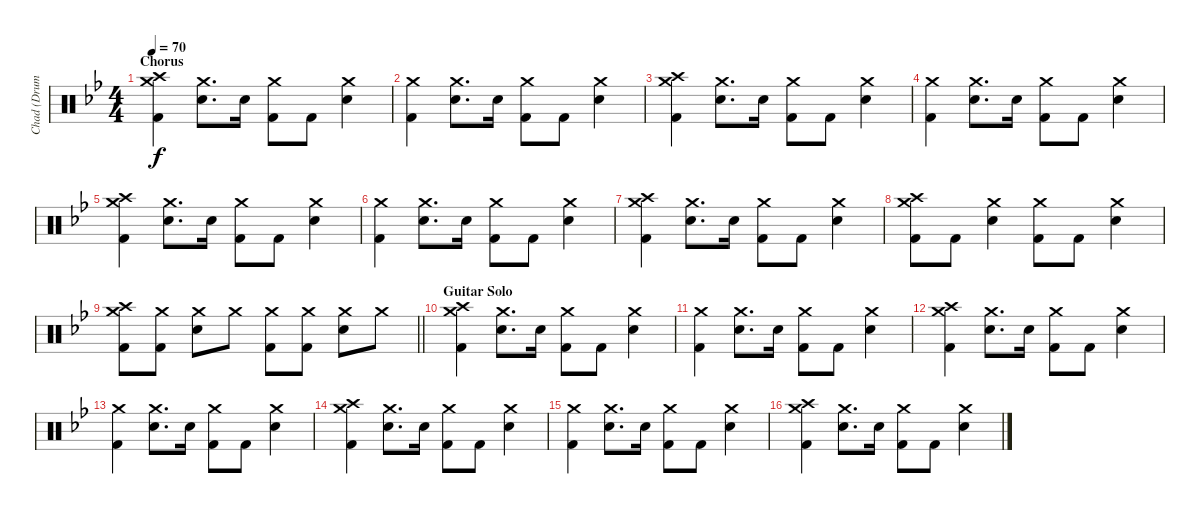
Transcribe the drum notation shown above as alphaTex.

\track ("Chad (Drums)" "Chad (Drum") {instrument percussion}
\staff {score}
\articulation defaults
\ts (4 4)
\section ("" "Chorus")
\tempo 70
\clef neutral
\ks bb
("Crash medium (hit)" "Crash high (hit)" "Kick (hit) 2").4{dy f} ("Crash medium (hit)" "Snare (hit) 2").8{d} "Snare (hit) 2".16 ("Crash medium (hit)" "Kick (hit) 2").8 "Kick (hit) 2".8 ("Crash medium (hit)" "Snare (hit) 2").4 |
("Crash medium (hit)" "Kick (hit) 2").4 ("Crash medium (hit)" "Snare (hit) 2").8{d} "Snare (hit) 2".16 ("Crash medium (hit)" "Kick (hit) 2").8 "Kick (hit) 2".8 ("Crash medium (hit)" "Snare (hit) 2").4 |
("Crash medium (hit)" "Crash high (hit)" "Kick (hit) 2").4 ("Crash medium (hit)" "Snare (hit) 2").8{d} "Snare (hit) 2".16 ("Crash medium (hit)" "Kick (hit) 2").8 "Kick (hit) 2".8 ("Crash medium (hit)" "Snare (hit) 2").4 |
("Crash medium (hit)" "Kick (hit) 2").4 ("Crash medium (hit)" "Snare (hit) 2").8{d} "Snare (hit) 2".16 ("Crash medium (hit)" "Kick (hit) 2").8 "Kick (hit) 2".8 ("Crash medium (hit)" "Snare (hit) 2").4 |
("Crash medium (hit)" "Crash high (hit)" "Kick (hit) 2").4 ("Crash medium (hit)" "Snare (hit) 2").8{d} "Snare (hit) 2".16 ("Crash medium (hit)" "Kick (hit) 2").8 "Kick (hit) 2".8 ("Crash medium (hit)" "Snare (hit) 2").4 |
("Crash medium (hit)" "Kick (hit) 2").4 ("Crash medium (hit)" "Snare (hit) 2").8{d} "Snare (hit) 2".16 ("Crash medium (hit)" "Kick (hit) 2").8 "Kick (hit) 2".8 ("Crash medium (hit)" "Snare (hit) 2").4 |
("Crash medium (hit)" "Crash high (hit)" "Kick (hit) 2").4 ("Crash medium (hit)" "Snare (hit) 2").8{d} "Snare (hit) 2".16 ("Crash medium (hit)" "Kick (hit) 2").8 "Kick (hit) 2".8 ("Crash medium (hit)" "Snare (hit) 2").4 |
("Crash medium (hit)" "Crash high (hit)" "Kick (hit) 2").8 "Kick (hit) 2".8 ("Crash medium (hit)" "Snare (hit) 2").4 ("Crash medium (hit)" "Kick (hit) 2").8 "Kick (hit) 2".8 ("Crash medium (hit)" "Snare (hit) 2").4 |
\barLineRight lightlight
("Crash medium (hit)" "Crash high (hit)" "Kick (hit) 2").8 ("Crash medium (hit)" "Kick (hit) 2").8 ("Crash medium (hit)" "Snare (hit) 2").8 "Crash medium (hit)".8 ("Crash medium (hit)" "Kick (hit) 2").8 ("Crash medium (hit)" "Kick (hit) 2").8 ("Crash medium (hit)" "Snare (hit) 2").8 "Crash medium (hit)".8 |
\section ("" "Guitar Solo")
("Crash medium (hit)" "Crash high (hit)" "Kick (hit) 2").4 ("Crash medium (hit)" "Snare (hit) 2").8{d} "Snare (hit) 2".16 ("Crash medium (hit)" "Kick (hit) 2").8 "Kick (hit) 2".8 ("Crash medium (hit)" "Snare (hit) 2").4 |
("Crash medium (hit)" "Kick (hit) 2").4 ("Crash medium (hit)" "Snare (hit) 2").8{d} "Snare (hit) 2".16 ("Crash medium (hit)" "Kick (hit) 2").8 "Kick (hit) 2".8 ("Crash medium (hit)" "Snare (hit) 2").4 |
("Crash medium (hit)" "Crash high (hit)" "Kick (hit) 2").4 ("Crash medium (hit)" "Snare (hit) 2").8{d} "Snare (hit) 2".16 ("Crash medium (hit)" "Kick (hit) 2").8 "Kick (hit) 2".8 ("Crash medium (hit)" "Snare (hit) 2").4 |
("Crash medium (hit)" "Kick (hit) 2").4 ("Crash medium (hit)" "Snare (hit) 2").8{d} "Snare (hit) 2".16 ("Crash medium (hit)" "Kick (hit) 2").8 "Kick (hit) 2".8 ("Crash medium (hit)" "Snare (hit) 2").4 |
("Crash medium (hit)" "Crash high (hit)" "Kick (hit) 2").4 ("Crash medium (hit)" "Snare (hit) 2").8{d} "Snare (hit) 2".16 ("Crash medium (hit)" "Kick (hit) 2").8 "Kick (hit) 2".8 ("Crash medium (hit)" "Snare (hit) 2").4 |
("Crash medium (hit)" "Kick (hit) 2").4 ("Crash medium (hit)" "Snare (hit) 2").8{d} "Snare (hit) 2".16 ("Crash medium (hit)" "Kick (hit) 2").8 "Kick (hit) 2".8 ("Crash medium (hit)" "Snare (hit) 2").4 |
("Crash medium (hit)" "Crash high (hit)" "Kick (hit) 2").4 ("Crash medium (hit)" "Snare (hit) 2").8{d} "Snare (hit) 2".16 ("Crash medium (hit)" "Kick (hit) 2").8 "Kick (hit) 2".8 ("Crash medium (hit)" "Snare (hit) 2").4
